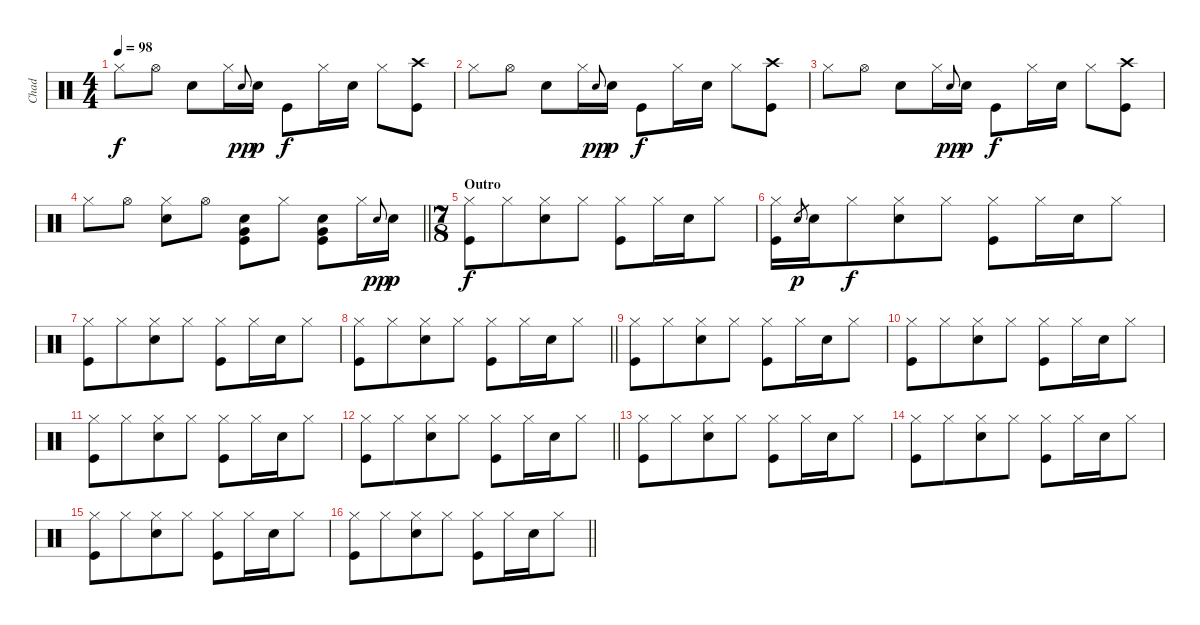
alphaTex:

\track ("Chad" "Chad") {instrument percussion}
\staff {score}
\articulation defaults
\ts (4 4)
\tempo 98
\clef neutral
\ks c "Hi-Hat (closed)".8{dy f} "Hi-Hat (open)".8 "Snare (hit) 2".8 "Hi-Hat (closed)".16 "Snare (hit) 2".8{gr onbeat dy pp} "Snare (hit) 2".16{dy p} "Kick (hit)".8{dy f} "Hi-Hat (closed)".16 "Snare (hit) 2".16 "Hi-Hat (closed)".8
("Crash high (hit)" "Kick (hit)").8 |
"Hi-Hat (closed)".8 "Hi-Hat (open)".8 "Snare (hit) 2".8 "Hi-Hat (closed)".16 "Snare (hit) 2".8{gr onbeat dy pp} "Snare (hit) 2".16{dy p} "Kick (hit)".8{dy f} "Hi-Hat (closed)".16 "Snare (hit) 2".16 "Hi-Hat (closed)".8 ("Crash high (hit)" "Kick (hit)").8 |
"Hi-Hat (closed)".8 "Hi-Hat (open)".8 "Snare (hit) 2".8 "Hi-Hat (closed)".16 "Snare (hit) 2".8{gr onbeat dy pp} "Snare (hit) 2".16{dy p} "Kick (hit)".8{dy f} "Hi-Hat (closed)".16 "Snare (hit) 2".16 "Hi-Hat (closed)".8 ("Crash high (hit)" "Kick (hit)").8 |
\barLineRight lightlight "Hi-Hat (closed)".8 "Hi-Hat (open)".8
("Hi-Hat (closed)" "Snare (hit) 2").8 "Hi-Hat (open)".8 ("Snare (hit) 2" "Kick (hit)" "Very Low Tom (hit)").8 "Hi-Hat (closed)".8 ("Kick (hit)" "Very Low Tom (hit)" "Snare (hit) 2").8 "Hi-Hat (closed)".16 "Snare (hit) 2".8{gr onbeat dy pp} "Snare (hit) 2".16{dy p} |
\ts (7 8)
\section ("" "Outro")
("Hi-Hat (closed)" "Kick (hit)").8{dy f} "Hi-Hat (closed)".8 ("Hi-Hat (closed)" "Snare (hit) 2").8 "Hi-Hat (closed)".8 ("Hi-Hat (closed)" "Kick (hit)").8 "Hi-Hat (closed)".16 "Snare (hit) 2".16 "Hi-Hat (closed)".8 |
("Hi-Hat (closed)" "Kick (hit)").16 "Snare (hit) 2".8{gr dy p} "Snare (hit) 2".16 "Hi-Hat (closed)".8{dy f} ("Hi-Hat (closed)" "Snare (hit) 2").8 "Hi-Hat (closed)".8 ("Hi-Hat (closed)" "Kick (hit)").8 "Hi-Hat (closed)".16 "Snare (hit) 2".16 "Hi-Hat (closed)".8 |
("Hi-Hat (closed)" "Kick (hit)").8 "Hi-Hat (closed)".8 ("Hi-Hat (closed)" "Snare (hit) 2").8 "Hi-Hat (closed)".8 ("Hi-Hat (closed)" "Kick (hit)").8 "Hi-Hat (closed)".16 "Snare (hit) 2".16 "Hi-Hat (closed)".8 |
\barLineRight lightlight
("Hi-Hat (closed)" "Kick (hit)").8 "Hi-Hat (closed)".8 ("Hi-Hat (closed)" "Snare (hit) 2").8 "Hi-Hat (closed)".8 ("Hi-Hat (closed)" "Kick (hit)").8 "Hi-Hat (closed)".16 "Snare (hit) 2".16 "Hi-Hat (closed)".8 |
("Hi-Hat (closed)" "Kick (hit)").8 "Hi-Hat (closed)".8 ("Hi-Hat (closed)" "Snare (hit) 2").8 "Hi-Hat (closed)".8 ("Hi-Hat (closed)" "Kick (hit)").8 "Hi-Hat (closed)".16 "Snare (hit) 2".16 "Hi-Hat (closed)".8 |
("Hi-Hat (closed)" "Kick (hit)").8 "Hi-Hat (closed)".8 ("Hi-Hat (closed)" "Snare (hit) 2").8 "Hi-Hat (closed)".8 ("Hi-Hat (closed)" "Kick (hit)").8 "Hi-Hat (closed)".16 "Snare (hit) 2".16 "Hi-Hat (closed)".8 |
("Hi-Hat (closed)" "Kick (hit)").8 "Hi-Hat (closed)".8 ("Hi-Hat (closed)" "Snare (hit) 2").8 "Hi-Hat (closed)".8 ("Hi-Hat (closed)" "Kick (hit)").8 "Hi-Hat (closed)".16 "Snare (hit) 2".16 "Hi-Hat (closed)".8 |
\barLineRight lightlight
("Hi-Hat (closed)" "Kick (hit)").8 "Hi-Hat (closed)".8 ("Hi-Hat (closed)" "Snare (hit) 2").8 "Hi-Hat (closed)".8 ("Hi-Hat (closed)" "Kick (hit)").8 "Hi-Hat (closed)".16 "Snare (hit) 2".16 "Hi-Hat (closed)".8 |
("Hi-Hat (closed)" "Kick (hit)").8 "Hi-Hat (closed)".8 ("Hi-Hat (closed)" "Snare (hit) 2").8 "Hi-Hat (closed)".8 ("Hi-Hat (closed)" "Kick (hit)").8 "Hi-Hat (closed)".16 "Snare (hit) 2".16 "Hi-Hat (closed)".8 |
("Hi-Hat (closed)" "Kick (hit)").8 "Hi-Hat (closed)".8 ("Hi-Hat (closed)" "Snare (hit) 2").8 "Hi-Hat (closed)".8 ("Hi-Hat (closed)" "Kick (hit)").8 "Hi-Hat (closed)".16 "Snare (hit) 2".16 "Hi-Hat (closed)".8 |
("Hi-Hat (closed)" "Kick (hit)").8 "Hi-Hat (closed)".8 ("Hi-Hat (closed)" "Snare (hit) 2").8 "Hi-Hat (closed)".8 ("Hi-Hat (closed)" "Kick (hit)").8 "Hi-Hat (closed)".16 "Snare (hit) 2".16 "Hi-Hat (closed)".8 |
\barLineRight lightlight
("Hi-Hat (closed)" "Kick (hit)").8{volume 5} "Hi-Hat (closed)".8 ("Hi-Hat (closed)" "Snare (hit) 2").8 "Hi-Hat (closed)".8 ("Hi-Hat (closed)" "Kick (hit)").8 "Hi-Hat (closed)".16 "Snare (hit) 2".16 "Hi-Hat (closed)".8
